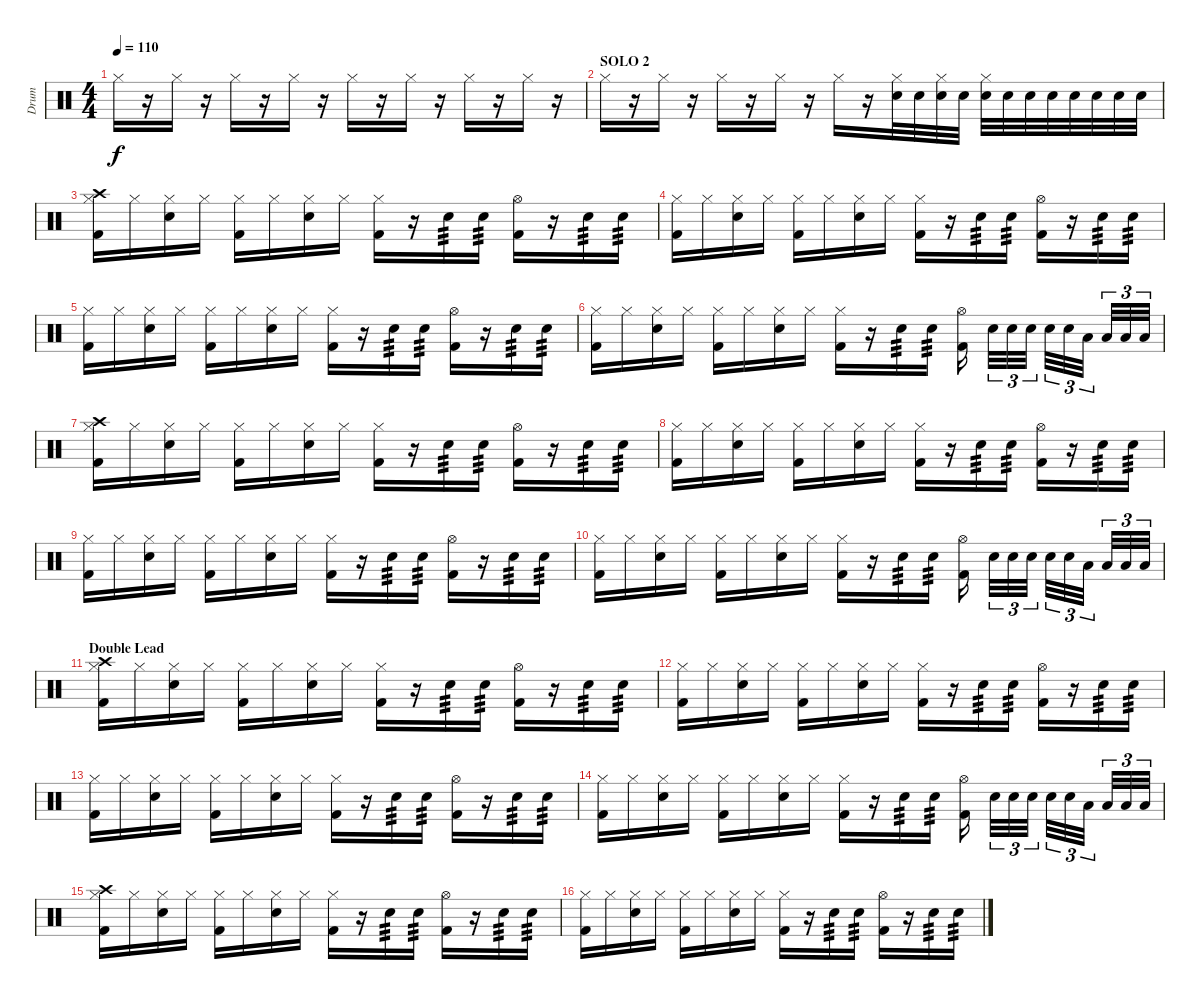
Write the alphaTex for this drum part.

\track ("Drum" "Drum") {instrument percussion}
\staff {score}
\articulation defaults
\ts (4 4)
\tempo 110
\clef neutral
\ks c "Hi-Hat (closed)".16{dy f}
r.16 "Hi-Hat (closed)".16 r.16 "Hi-Hat (closed)".16 r.16 "Hi-Hat (closed)".16 r.16 "Hi-Hat (closed)".16 r.16 "Hi-Hat (closed)".16 r.16 "Hi-Hat (closed)".16 r.16 "Hi-Hat (closed)".16 r.16 |
\section ("" "SOLO 2")
"Hi-Hat (closed)".16 r.16 "Hi-Hat (closed)".16 r.16 "Hi-Hat (closed)".16 r.16 "Hi-Hat (closed)".16 r.16 "Hi-Hat (closed)".16 r.16 ("Snare (hit) 2" "Hi-Hat (closed)").32 "Snare (hit) 2".32 ("Snare (hit) 2" "Hi-Hat (closed)").32 "Snare (hit) 2".32 ("Snare (hit) 2" "Hi-Hat (closed)").32 "Snare (hit) 2".32 "Snare (hit) 2".32 "Snare (hit) 2".32 "Snare (hit) 2".32 "Snare (hit) 2".32 "Snare (hit) 2".32 "Snare (hit) 2".32 |
("Kick (hit) 2" "Hi-Hat (closed)" "Crash high (hit)").16 "Hi-Hat (closed)".16 ("Snare (hit) 2" "Hi-Hat (closed)").16 "Hi-Hat (closed)".16 ("Kick (hit) 2" "Hi-Hat (closed)").16 "Hi-Hat (closed)".16 ("Snare (hit) 2" "Hi-Hat (closed)").16 "Hi-Hat (closed)".16 ("Kick (hit) 2" "Hi-Hat (closed)").16 r.16 "Snare (hit) 2".16{tp 3} "Snare (hit) 2".16{tp 3} ("Kick (hit) 2" "Hi-Hat (open)").16 r.16 "Snare (hit) 2".16{tp 3} "Snare (hit) 2".16{tp 3} |
("Kick (hit) 2" "Hi-Hat (closed)").16 "Hi-Hat (closed)".16 ("Snare (hit) 2" "Hi-Hat (closed)").16 "Hi-Hat (closed)".16 ("Kick (hit) 2" "Hi-Hat (closed)").16 "Hi-Hat (closed)".16 ("Snare (hit) 2" "Hi-Hat (closed)").16 "Hi-Hat (closed)".16 ("Kick (hit) 2" "Hi-Hat (closed)").16 r.16 "Snare (hit) 2".16{tp 3} "Snare (hit) 2".16{tp 3} ("Kick (hit) 2" "Hi-Hat (open)").16 r.16 "Snare (hit) 2".16{tp 3} "Snare (hit) 2".16{tp 3} |
("Kick (hit) 2" "Hi-Hat (closed)").16 "Hi-Hat (closed)".16 ("Snare (hit) 2" "Hi-Hat (closed)").16 "Hi-Hat (closed)".16 ("Kick (hit) 2" "Hi-Hat (closed)").16 "Hi-Hat (closed)".16 ("Snare (hit) 2" "Hi-Hat (closed)").16 "Hi-Hat (closed)".16 ("Kick (hit) 2" "Hi-Hat (closed)").16 r.16 "Snare (hit) 2".16{tp 3} "Snare (hit) 2".16{tp 3} ("Kick (hit) 2" "Hi-Hat (open)").16 r.16 "Snare (hit) 2".16{tp 3} "Snare (hit) 2".16{tp 3} |
("Kick (hit) 2" "Hi-Hat (closed)").16 "Hi-Hat (closed)".16 ("Snare (hit) 2" "Hi-Hat (closed)").16 "Hi-Hat (closed)".16 ("Kick (hit) 2" "Hi-Hat (closed)").16 "Hi-Hat (closed)".16 ("Snare (hit) 2" "Hi-Hat (closed)").16 "Hi-Hat (closed)".16 ("Kick (hit) 2" "Hi-Hat (closed)").16 r.16 "Snare (hit) 2".16{tp 3} "Snare (hit) 2".16{tp 3} ("Kick (hit) 2" "Hi-Hat (open)").16 "Snare (hit) 2".32{tu (3 2)} "Snare (hit) 2".32{tu (3 2)} "Snare (hit) 2".32{tu (3 2)} "Snare (hit) 2".32{tu (3 2)} "Snare (hit) 2".32{tu (3 2)} "Low Tom (hit)".32{tu (3 2)} "Low Tom (hit)".32{tu (3 2)} "Low Tom (hit)".32{tu (3 2)} "Low Tom (hit)".32{tu (3 2)} |
("Kick (hit) 2" "Hi-Hat (closed)" "Crash high (hit)").16 "Hi-Hat (closed)".16 ("Snare (hit) 2" "Hi-Hat (closed)").16 "Hi-Hat (closed)".16 ("Kick (hit) 2" "Hi-Hat (closed)").16 "Hi-Hat (closed)".16 ("Snare (hit) 2" "Hi-Hat (closed)").16 "Hi-Hat (closed)".16 ("Kick (hit) 2" "Hi-Hat (closed)").16 r.16 "Snare (hit) 2".16{tp 3} "Snare (hit) 2".16{tp 3} ("Kick (hit) 2" "Hi-Hat (open)").16 r.16 "Snare (hit) 2".16{tp 3} "Snare (hit) 2".16{tp 3} |
("Kick (hit) 2" "Hi-Hat (closed)").16 "Hi-Hat (closed)".16 ("Snare (hit) 2" "Hi-Hat (closed)").16 "Hi-Hat (closed)".16 ("Kick (hit) 2" "Hi-Hat (closed)").16 "Hi-Hat (closed)".16 ("Snare (hit) 2" "Hi-Hat (closed)").16 "Hi-Hat (closed)".16 ("Kick (hit) 2" "Hi-Hat (closed)").16 r.16 "Snare (hit) 2".16{tp 3} "Snare (hit) 2".16{tp 3} ("Kick (hit) 2" "Hi-Hat (open)").16 r.16 "Snare (hit) 2".16{tp 3} "Snare (hit) 2".16{tp 3} |
("Kick (hit) 2" "Hi-Hat (closed)").16 "Hi-Hat (closed)".16 ("Snare (hit) 2" "Hi-Hat (closed)").16 "Hi-Hat (closed)".16 ("Kick (hit) 2" "Hi-Hat (closed)").16 "Hi-Hat (closed)".16 ("Snare (hit) 2" "Hi-Hat (closed)").16 "Hi-Hat (closed)".16 ("Kick (hit) 2" "Hi-Hat (closed)").16 r.16 "Snare (hit) 2".16{tp 3} "Snare (hit) 2".16{tp 3} ("Kick (hit) 2" "Hi-Hat (open)").16 r.16 "Snare (hit) 2".16{tp 3} "Snare (hit) 2".16{tp 3} |
("Kick (hit) 2" "Hi-Hat (closed)").16 "Hi-Hat (closed)".16 ("Snare (hit) 2" "Hi-Hat (closed)").16 "Hi-Hat (closed)".16 ("Kick (hit) 2" "Hi-Hat (closed)").16 "Hi-Hat (closed)".16 ("Snare (hit) 2" "Hi-Hat (closed)").16 "Hi-Hat (closed)".16 ("Kick (hit) 2" "Hi-Hat (closed)").16 r.16 "Snare (hit) 2".16{tp 3} "Snare (hit) 2".16{tp 3} ("Kick (hit) 2" "Hi-Hat (open)").16 "Snare (hit) 2".32{tu (3 2)} "Snare (hit) 2".32{tu (3 2)} "Snare (hit) 2".32{tu (3 2)} "Snare (hit) 2".32{tu (3 2)} "Snare (hit) 2".32{tu (3 2)} "Low Tom (hit)".32{tu (3 2)} "Low Tom (hit)".32{tu (3 2)} "Low Tom (hit)".32{tu (3 2)} "Low Tom (hit)".32{tu (3 2)} |
\section ("" "Double Lead")
("Kick (hit) 2" "Hi-Hat (closed)" "Crash high (hit)").16 "Hi-Hat (closed)".16 ("Snare (hit) 2" "Hi-Hat (closed)").16 "Hi-Hat (closed)".16 ("Kick (hit) 2" "Hi-Hat (closed)").16 "Hi-Hat (closed)".16 ("Snare (hit) 2" "Hi-Hat (closed)").16 "Hi-Hat (closed)".16 ("Kick (hit) 2" "Hi-Hat (closed)").16 r.16 "Snare (hit) 2".16{tp 3} "Snare (hit) 2".16{tp 3} ("Kick (hit) 2" "Hi-Hat (open)").16 r.16 "Snare (hit) 2".16{tp 3} "Snare (hit) 2".16{tp 3} |
("Kick (hit) 2" "Hi-Hat (closed)").16 "Hi-Hat (closed)".16 ("Snare (hit) 2" "Hi-Hat (closed)").16 "Hi-Hat (closed)".16 ("Kick (hit) 2" "Hi-Hat (closed)").16 "Hi-Hat (closed)".16 ("Snare (hit) 2" "Hi-Hat (closed)").16 "Hi-Hat (closed)".16 ("Kick (hit) 2" "Hi-Hat (closed)").16 r.16 "Snare (hit) 2".16{tp 3} "Snare (hit) 2".16{tp 3} ("Kick (hit) 2" "Hi-Hat (open)").16 r.16 "Snare (hit) 2".16{tp 3} "Snare (hit) 2".16{tp 3} |
("Kick (hit) 2" "Hi-Hat (closed)").16 "Hi-Hat (closed)".16 ("Snare (hit) 2" "Hi-Hat (closed)").16 "Hi-Hat (closed)".16 ("Kick (hit) 2" "Hi-Hat (closed)").16 "Hi-Hat (closed)".16 ("Snare (hit) 2" "Hi-Hat (closed)").16 "Hi-Hat (closed)".16 ("Kick (hit) 2" "Hi-Hat (closed)").16 r.16 "Snare (hit) 2".16{tp 3} "Snare (hit) 2".16{tp 3} ("Kick (hit) 2" "Hi-Hat (open)").16 r.16 "Snare (hit) 2".16{tp 3} "Snare (hit) 2".16{tp 3} |
("Kick (hit) 2" "Hi-Hat (closed)").16 "Hi-Hat (closed)".16 ("Snare (hit) 2" "Hi-Hat (closed)").16 "Hi-Hat (closed)".16 ("Kick (hit) 2" "Hi-Hat (closed)").16 "Hi-Hat (closed)".16 ("Snare (hit) 2" "Hi-Hat (closed)").16 "Hi-Hat (closed)".16 ("Kick (hit) 2" "Hi-Hat (closed)").16 r.16 "Snare (hit) 2".16{tp 3} "Snare (hit) 2".16{tp 3} ("Kick (hit) 2" "Hi-Hat (open)").16 "Snare (hit) 2".32{tu (3 2)} "Snare (hit) 2".32{tu (3 2)} "Snare (hit) 2".32{tu (3 2)} "Snare (hit) 2".32{tu (3 2)} "Snare (hit) 2".32{tu (3 2)} "Low Tom (hit)".32{tu (3 2)} "Low Tom (hit)".32{tu (3 2)} "Low Tom (hit)".32{tu (3 2)} "Low Tom (hit)".32{tu (3 2)} |
("Kick (hit) 2" "Hi-Hat (closed)" "Crash high (hit)").16 "Hi-Hat (closed)".16 ("Snare (hit) 2" "Hi-Hat (closed)").16 "Hi-Hat (closed)".16 ("Kick (hit) 2" "Hi-Hat (closed)").16 "Hi-Hat (closed)".16 ("Snare (hit) 2" "Hi-Hat (closed)").16 "Hi-Hat (closed)".16 ("Kick (hit) 2" "Hi-Hat (closed)").16 r.16 "Snare (hit) 2".16{tp 3} "Snare (hit) 2".16{tp 3} ("Kick (hit) 2" "Hi-Hat (open)").16 r.16 "Snare (hit) 2".16{tp 3} "Snare (hit) 2".16{tp 3} |
("Kick (hit) 2" "Hi-Hat (closed)").16 "Hi-Hat (closed)".16 ("Snare (hit) 2" "Hi-Hat (closed)").16 "Hi-Hat (closed)".16 ("Kick (hit) 2" "Hi-Hat (closed)").16 "Hi-Hat (closed)".16 ("Snare (hit) 2" "Hi-Hat (closed)").16 "Hi-Hat (closed)".16 ("Kick (hit) 2" "Hi-Hat (closed)").16 r.16 "Snare (hit) 2".16{tp 3} "Snare (hit) 2".16{tp 3} ("Kick (hit) 2" "Hi-Hat (open)").16 r.16 "Snare (hit) 2".16{tp 3} "Snare (hit) 2".16{tp 3}
